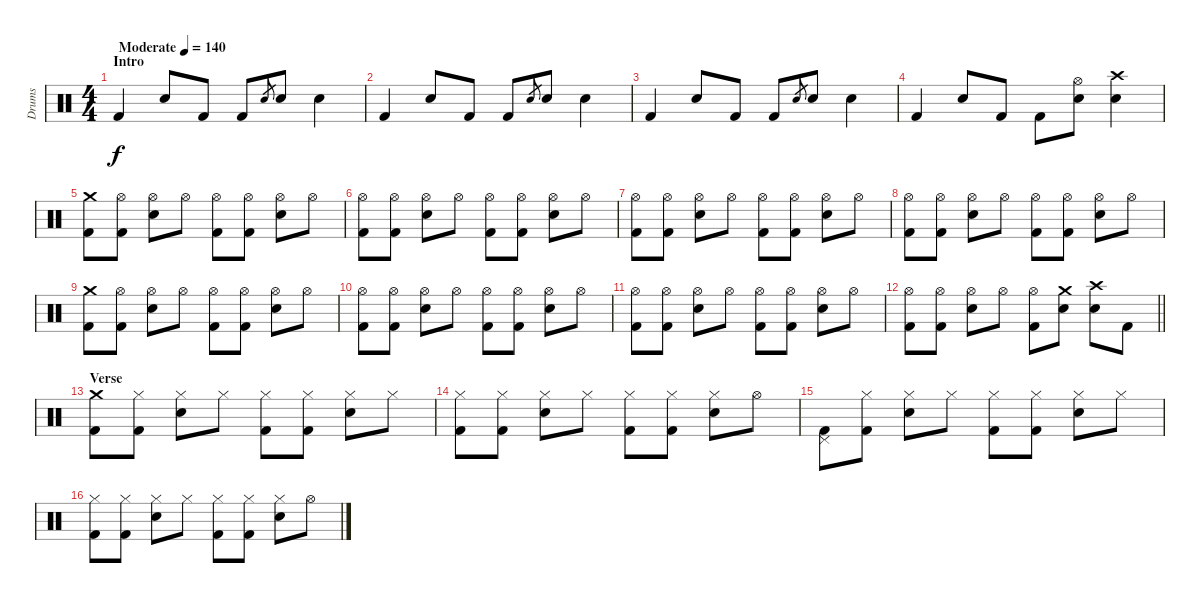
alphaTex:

\track ("Drums" "Drums") {instrument percussion}
\staff {score}
\articulation defaults
\ts (4 4)
\section ("" "Intro")
\tempo (140 "Moderate")
\clef neutral
\ks c "Kick (hit) 2".4{dy f} "Electric Snare (hit)".8 "Kick (hit) 2".8 "Kick (hit) 2".8 "Electric Snare (hit)".8{gr} "Electric Snare (hit)".8 "Electric Snare (hit)".4
|
"Kick (hit) 2".4 "Electric Snare (hit)".8 "Kick (hit) 2".8 "Kick (hit) 2".8 "Electric Snare (hit)".8{gr} "Electric Snare (hit)".8 "Electric Snare (hit)".4 |
"Kick (hit) 2".4 "Electric Snare (hit)".8 "Kick (hit) 2".8 "Kick (hit) 2".8 "Electric Snare (hit)".8{gr} "Electric Snare (hit)".8 "Electric Snare (hit)".4 |
"Kick (hit) 2".4 "Electric Snare (hit)".8 "Kick (hit) 2".8 "Kick (hit) 2".8 ("Hi-Hat (open)" "Electric Snare (hit)").8 ("Crash high (hit)" "Electric Snare (hit)").4 |
("Crash medium (hit)" "Kick (hit) 2").8 ("Hi-Hat (open)" "Kick (hit) 2").8 ("Hi-Hat (open)" "Electric Snare (hit)").8 "Hi-Hat (open)".8 ("Hi-Hat (open)" "Kick (hit) 2").8 ("Hi-Hat (open)" "Kick (hit) 2").8 ("Hi-Hat (open)" "Electric Snare (hit)").8 "Hi-Hat (open)".8 |
("Hi-Hat (open)" "Kick (hit) 2").8 ("Hi-Hat (open)" "Kick (hit) 2").8 ("Hi-Hat (open)" "Electric Snare (hit)").8 "Hi-Hat (open)".8 ("Hi-Hat (open)" "Kick (hit) 2").8 ("Hi-Hat (open)" "Kick (hit) 2").8 ("Hi-Hat (open)" "Electric Snare (hit)").8 "Hi-Hat (open)".8 |
("Hi-Hat (open)" "Kick (hit) 2").8 ("Hi-Hat (open)" "Kick (hit) 2").8 ("Hi-Hat (open)" "Electric Snare (hit)").8 "Hi-Hat (open)".8 ("Hi-Hat (open)" "Kick (hit) 2").8 ("Hi-Hat (open)" "Kick (hit) 2").8 ("Hi-Hat (open)" "Electric Snare (hit)").8 "Hi-Hat (open)".8 |
("Hi-Hat (open)" "Kick (hit) 2").8 ("Hi-Hat (open)" "Kick (hit) 2").8 ("Hi-Hat (open)" "Electric Snare (hit)").8 "Hi-Hat (open)".8 ("Hi-Hat (open)" "Kick (hit) 2").8 ("Hi-Hat (open)" "Kick (hit) 2").8 ("Hi-Hat (open)" "Electric Snare (hit)").8 "Hi-Hat (open)".8 |
("Crash medium (hit)" "Kick (hit) 2").8 ("Hi-Hat (open)" "Kick (hit) 2").8 ("Hi-Hat (open)" "Electric Snare (hit)").8 "Hi-Hat (open)".8 ("Hi-Hat (open)" "Kick (hit) 2").8 ("Hi-Hat (open)" "Kick (hit) 2").8 ("Hi-Hat (open)" "Electric Snare (hit)").8 "Hi-Hat (open)".8 |
("Hi-Hat (open)" "Kick (hit) 2").8 ("Hi-Hat (open)" "Kick (hit) 2").8 ("Hi-Hat (open)" "Electric Snare (hit)").8 "Hi-Hat (open)".8 ("Hi-Hat (open)" "Kick (hit) 2").8 ("Hi-Hat (open)" "Kick (hit) 2").8 ("Hi-Hat (open)" "Electric Snare (hit)").8 "Hi-Hat (open)".8 |
("Hi-Hat (open)" "Kick (hit) 2").8 ("Hi-Hat (open)" "Kick (hit) 2").8 ("Hi-Hat (open)" "Electric Snare (hit)").8 "Hi-Hat (open)".8 ("Hi-Hat (open)" "Kick (hit) 2").8 ("Hi-Hat (open)" "Kick (hit) 2").8 ("Hi-Hat (open)" "Electric Snare (hit)").8 "Hi-Hat (open)".8 |
\barLineRight lightlight
("Hi-Hat (open)" "Kick (hit) 2").8 ("Hi-Hat (open)" "Kick (hit) 2").8 ("Hi-Hat (open)" "Electric Snare (hit)").8 "Hi-Hat (open)".8 ("Hi-Hat (open)" "Kick (hit) 2").8 ("Crash medium (hit)" "Electric Snare (hit)").8 ("Crash high (hit)" "Electric Snare (hit)").8 "Kick (hit) 2".8 |
\section ("" "Verse")
("Crash medium (hit)" "Kick (hit) 2").8 ("Hi-Hat (closed)" "Kick (hit) 2").8 ("Hi-Hat (closed)" "Electric Snare (hit)").8 "Hi-Hat (closed)".8 ("Hi-Hat (closed)" "Kick (hit) 2").8 ("Hi-Hat (closed)" "Kick (hit) 2").8 ("Hi-Hat (closed)" "Electric Snare (hit)").8 "Hi-Hat (closed)".8 |
("Hi-Hat (closed)" "Kick (hit) 2").8 ("Hi-Hat (closed)" "Kick (hit) 2").8 ("Hi-Hat (closed)" "Electric Snare (hit)").8 "Hi-Hat (closed)".8 ("Hi-Hat (closed)" "Kick (hit) 2").8 ("Hi-Hat (closed)" "Kick (hit) 2").8 ("Hi-Hat (closed)" "Electric Snare (hit)").8 "Hi-Hat (open)".8 |
("Pedal Hi-Hat (hit)" "Kick (hit) 2").8 ("Hi-Hat (closed)" "Kick (hit) 2").8 ("Hi-Hat (closed)" "Electric Snare (hit)").8 "Hi-Hat (closed)".8 ("Hi-Hat (closed)" "Kick (hit) 2").8 ("Hi-Hat (closed)" "Kick (hit) 2").8 ("Hi-Hat (closed)" "Electric Snare (hit)").8 "Hi-Hat (closed)".8 |
("Hi-Hat (closed)" "Kick (hit) 2").8 ("Hi-Hat (closed)" "Kick (hit) 2").8 ("Hi-Hat (closed)" "Electric Snare (hit)").8 "Hi-Hat (closed)".8 ("Hi-Hat (closed)" "Kick (hit) 2").8 ("Hi-Hat (closed)" "Kick (hit) 2").8 ("Hi-Hat (closed)" "Electric Snare (hit)").8 "Hi-Hat (open)".8
